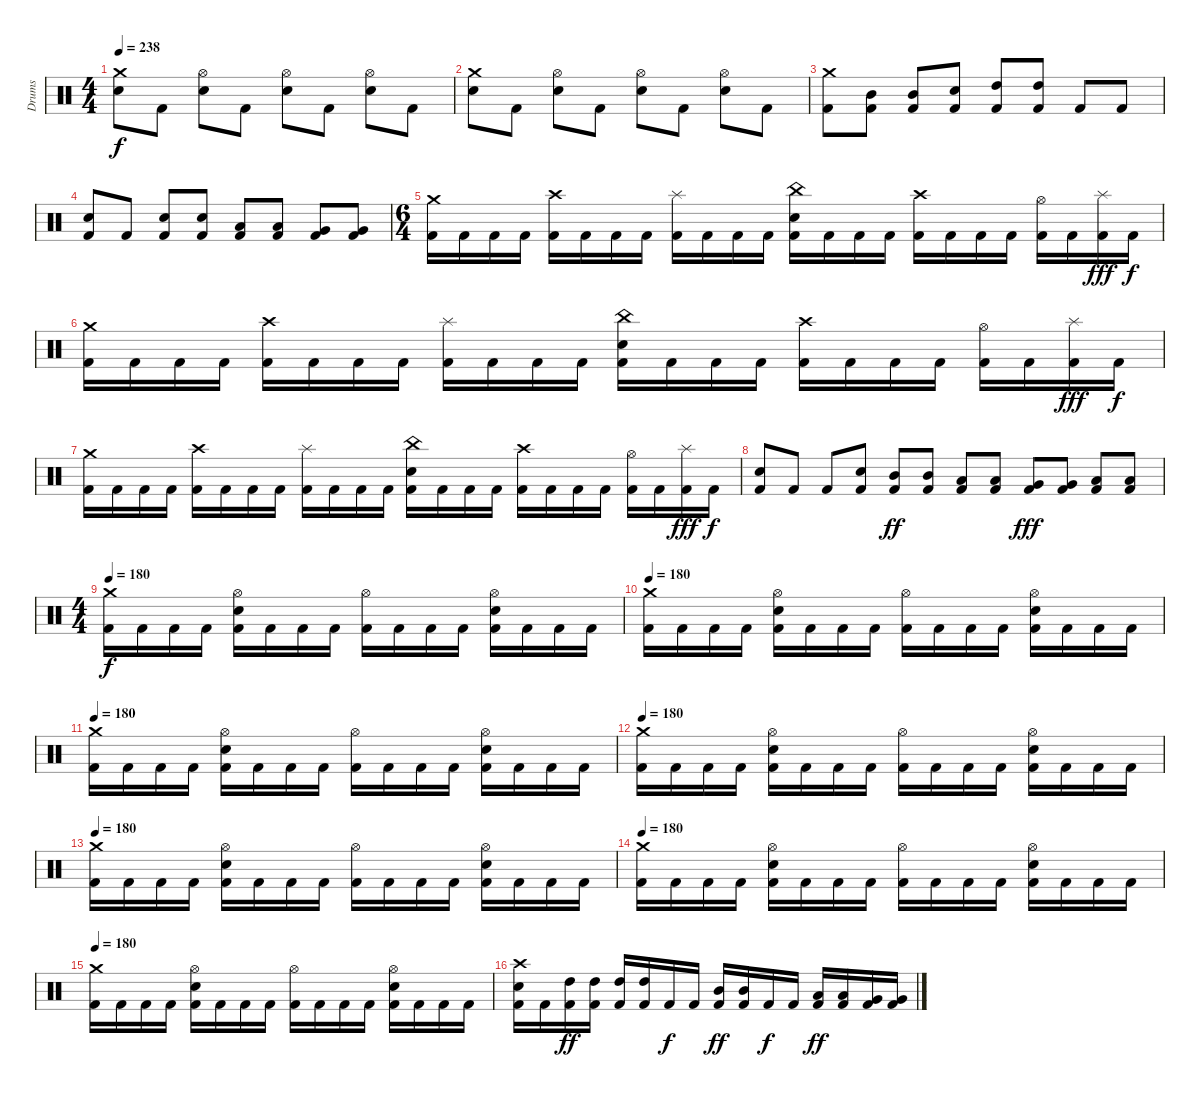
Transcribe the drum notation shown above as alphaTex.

\track ("Drums" "Drums") {instrument percussion}
\staff {score}
\articulation defaults
\ts (4 4)
\tempo 238
\clef neutral
\ks c
("Crash medium (hit)" "Electric Snare (hit)").8{dy f} "Kick (hit) 2".8 ("Hi-Hat (open)" "Electric Snare (hit)").8 "Kick (hit) 2".8 ("Hi-Hat (open)" "Electric Snare (hit)").8 "Kick (hit) 2".8 ("Hi-Hat (open)" "Electric Snare (hit)").8 "Kick (hit) 2".8 |
("Crash medium (hit)" "Electric Snare (hit)").8 "Kick (hit) 2".8 ("Hi-Hat (open)" "Electric Snare (hit)").8 "Kick (hit) 2".8 ("Hi-Hat (open)" "Electric Snare (hit)").8 "Kick (hit) 2".8 ("Hi-Hat (open)" "Electric Snare (hit)").8 "Kick (hit) 2".8 |
("Crash medium (hit)" "Kick (hit) 2").8 ("Mid Tom (hit)" "Kick (hit) 2").8 ("Mid Tom (hit)" "Kick (hit) 2").8 ("Electric Snare (hit)" "Kick (hit) 2").8 ("High Tom (hit)" "Kick (hit) 2").8 ("High Tom (hit)" "Kick (hit) 2").8 "Kick (hit) 2".8 "Kick (hit) 2".8 |
("Electric Snare (hit)" "Kick (hit) 2").8 "Kick (hit) 2".8 ("Electric Snare (hit)" "Kick (hit) 2").8 ("Electric Snare (hit)" "Kick (hit) 2").8 ("Low Tom (hit)" "Kick (hit) 2").8 ("Low Tom (hit)" "Kick (hit) 2").8 ("Very Low Tom (hit)" "Kick (hit) 2").8 ("Very Low Tom (hit)" "Kick (hit) 2").8 |
\ts (6 4)
("Crash medium (hit)" "Kick (hit) 2").16 "Kick (hit) 2".16 "Kick (hit) 2".16 "Kick (hit) 2".16 ("Crash high (hit)" "Kick (hit) 2").16 "Kick (hit) 2".16 "Kick (hit) 2".16 "Kick (hit) 2".16 ("Splash (hit)" "Kick (hit) 2").16 "Kick (hit) 2".16 "Kick (hit) 2".16 "Kick (hit) 2".16 ("China (hit)" "Electric Snare (hit)" "Kick (hit) 2").16 "Kick (hit) 2".16 "Kick (hit) 2".16 "Kick (hit) 2".16 ("Crash high (hit)" "Kick (hit) 2").16 "Kick (hit) 2".16 "Kick (hit) 2".16 "Kick (hit) 2".16 ("Hi-Hat (open)" "Kick (hit) 2").16 "Kick (hit) 2".16 ("Splash (hit)" "Kick (hit) 2").16{dy fff} "Kick (hit) 2".16{dy f} |
("Crash medium (hit)" "Kick (hit) 2").16 "Kick (hit) 2".16 "Kick (hit) 2".16 "Kick (hit) 2".16 ("Crash high (hit)" "Kick (hit) 2").16 "Kick (hit) 2".16 "Kick (hit) 2".16 "Kick (hit) 2".16 ("Splash (hit)" "Kick (hit) 2").16 "Kick (hit) 2".16 "Kick (hit) 2".16 "Kick (hit) 2".16 ("China (hit)" "Electric Snare (hit)" "Kick (hit) 2").16 "Kick (hit) 2".16 "Kick (hit) 2".16 "Kick (hit) 2".16 ("Crash high (hit)" "Kick (hit) 2").16 "Kick (hit) 2".16 "Kick (hit) 2".16 "Kick (hit) 2".16 ("Hi-Hat (open)" "Kick (hit) 2").16 "Kick (hit) 2".16 ("Splash (hit)" "Kick (hit) 2").16{dy fff} "Kick (hit) 2".16{dy f} |
("Crash medium (hit)" "Kick (hit) 2").16 "Kick (hit) 2".16 "Kick (hit) 2".16 "Kick (hit) 2".16 ("Crash high (hit)" "Kick (hit) 2").16 "Kick (hit) 2".16 "Kick (hit) 2".16 "Kick (hit) 2".16 ("Splash (hit)" "Kick (hit) 2").16 "Kick (hit) 2".16 "Kick (hit) 2".16 "Kick (hit) 2".16 ("China (hit)" "Electric Snare (hit)" "Kick (hit) 2").16 "Kick (hit) 2".16 "Kick (hit) 2".16 "Kick (hit) 2".16 ("Crash high (hit)" "Kick (hit) 2").16 "Kick (hit) 2".16 "Kick (hit) 2".16 "Kick (hit) 2".16 ("Hi-Hat (open)" "Kick (hit) 2").16 "Kick (hit) 2".16 ("Splash (hit)" "Kick (hit) 2").16{dy fff} "Kick (hit) 2".16{dy f} |
("Electric Snare (hit)" "Kick (hit) 2").8 "Kick (hit) 2".8 "Kick (hit) 2".8 ("Electric Snare (hit)" "Kick (hit) 2").8 ("Mid Tom (hit)" "Kick (hit) 2").8{dy ff} ("Mid Tom (hit)" "Kick (hit) 2").8 ("Low Tom (hit)" "Kick (hit) 2").8 ("Low Tom (hit)" "Kick (hit) 2").8 ("Very Low Tom (hit)" "Kick (hit) 2").8{dy fff} ("Very Low Tom (hit)" "Kick (hit) 2").8 ("Low Floor Tom (hit)" "Kick (hit) 2").8 ("Low Floor Tom (hit)" "Kick (hit) 2").8 |
\ts (4 4)
\tempo 180
("Crash medium (hit)" "Kick (hit) 2").16{dy f} "Kick (hit) 2".16 "Kick (hit) 2".16 "Kick (hit) 2".16 ("Hi-Hat (open)" "Electric Snare (hit)" "Kick (hit) 2").16 "Kick (hit) 2".16 "Kick (hit) 2".16 "Kick (hit) 2".16 ("Hi-Hat (open)" "Kick (hit) 2").16 "Kick (hit) 2".16 "Kick (hit) 2".16 "Kick (hit) 2".16 ("Hi-Hat (open)" "Electric Snare (hit)" "Kick (hit) 2").16 "Kick (hit) 2".16 "Kick (hit) 2".16 "Kick (hit) 2".16 |
\tempo 180
("Crash medium (hit)" "Kick (hit) 2").16 "Kick (hit) 2".16 "Kick (hit) 2".16 "Kick (hit) 2".16 ("Hi-Hat (open)" "Electric Snare (hit)" "Kick (hit) 2").16 "Kick (hit) 2".16 "Kick (hit) 2".16 "Kick (hit) 2".16 ("Hi-Hat (open)" "Kick (hit) 2").16 "Kick (hit) 2".16 "Kick (hit) 2".16 "Kick (hit) 2".16 ("Hi-Hat (open)" "Electric Snare (hit)" "Kick (hit) 2").16 "Kick (hit) 2".16 "Kick (hit) 2".16 "Kick (hit) 2".16 |
\tempo 180
("Crash medium (hit)" "Kick (hit) 2").16 "Kick (hit) 2".16 "Kick (hit) 2".16 "Kick (hit) 2".16 ("Hi-Hat (open)" "Electric Snare (hit)" "Kick (hit) 2").16 "Kick (hit) 2".16 "Kick (hit) 2".16 "Kick (hit) 2".16 ("Hi-Hat (open)" "Kick (hit) 2").16 "Kick (hit) 2".16 "Kick (hit) 2".16 "Kick (hit) 2".16 ("Hi-Hat (open)" "Electric Snare (hit)" "Kick (hit) 2").16 "Kick (hit) 2".16 "Kick (hit) 2".16 "Kick (hit) 2".16 |
\tempo 180
("Crash medium (hit)" "Kick (hit) 2").16 "Kick (hit) 2".16 "Kick (hit) 2".16 "Kick (hit) 2".16 ("Hi-Hat (open)" "Electric Snare (hit)" "Kick (hit) 2").16 "Kick (hit) 2".16 "Kick (hit) 2".16 "Kick (hit) 2".16 ("Hi-Hat (open)" "Kick (hit) 2").16 "Kick (hit) 2".16 "Kick (hit) 2".16 "Kick (hit) 2".16 ("Hi-Hat (open)" "Electric Snare (hit)" "Kick (hit) 2").16 "Kick (hit) 2".16 "Kick (hit) 2".16 "Kick (hit) 2".16 |
\tempo 180
("Crash medium (hit)" "Kick (hit) 2").16 "Kick (hit) 2".16 "Kick (hit) 2".16 "Kick (hit) 2".16 ("Hi-Hat (open)" "Electric Snare (hit)" "Kick (hit) 2").16 "Kick (hit) 2".16 "Kick (hit) 2".16 "Kick (hit) 2".16 ("Hi-Hat (open)" "Kick (hit) 2").16 "Kick (hit) 2".16 "Kick (hit) 2".16 "Kick (hit) 2".16 ("Hi-Hat (open)" "Electric Snare (hit)" "Kick (hit) 2").16 "Kick (hit) 2".16 "Kick (hit) 2".16 "Kick (hit) 2".16 |
\tempo 180
("Crash medium (hit)" "Kick (hit) 2").16 "Kick (hit) 2".16 "Kick (hit) 2".16 "Kick (hit) 2".16 ("Hi-Hat (open)" "Electric Snare (hit)" "Kick (hit) 2").16 "Kick (hit) 2".16 "Kick (hit) 2".16 "Kick (hit) 2".16 ("Hi-Hat (open)" "Kick (hit) 2").16 "Kick (hit) 2".16 "Kick (hit) 2".16 "Kick (hit) 2".16 ("Hi-Hat (open)" "Electric Snare (hit)" "Kick (hit) 2").16 "Kick (hit) 2".16 "Kick (hit) 2".16 "Kick (hit) 2".16 |
\tempo 180
("Crash medium (hit)" "Kick (hit) 2").16 "Kick (hit) 2".16 "Kick (hit) 2".16 "Kick (hit) 2".16 ("Hi-Hat (open)" "Electric Snare (hit)" "Kick (hit) 2").16 "Kick (hit) 2".16 "Kick (hit) 2".16 "Kick (hit) 2".16 ("Hi-Hat (open)" "Kick (hit) 2").16 "Kick (hit) 2".16 "Kick (hit) 2".16 "Kick (hit) 2".16 ("Hi-Hat (open)" "Electric Snare (hit)" "Kick (hit) 2").16 "Kick (hit) 2".16 "Kick (hit) 2".16 "Kick (hit) 2".16 |
("Crash high (hit)" "Electric Snare (hit)" "Kick (hit) 2").16 "Kick (hit) 2".16 ("High Tom (hit)" "Kick (hit) 2").16{dy ff} ("High Tom (hit)" "Kick (hit) 2").16 ("High Tom (hit)" "Kick (hit) 2").16 ("High Tom (hit)" "Kick (hit) 2").16 "Kick (hit) 2".16{dy f} "Kick (hit) 2".16 ("Mid Tom (hit)" "Kick (hit) 2").16{dy ff} ("Mid Tom (hit)" "Kick (hit) 2").16 "Kick (hit) 2".16{dy f} "Kick (hit) 2".16 ("Low Tom (hit)" "Kick (hit) 2").16{dy ff} ("Low Tom (hit)" "Kick (hit) 2").16 ("Very Low Tom (hit)" "Kick (hit) 2").16 ("Very Low Tom (hit)" "Kick (hit) 2").16
